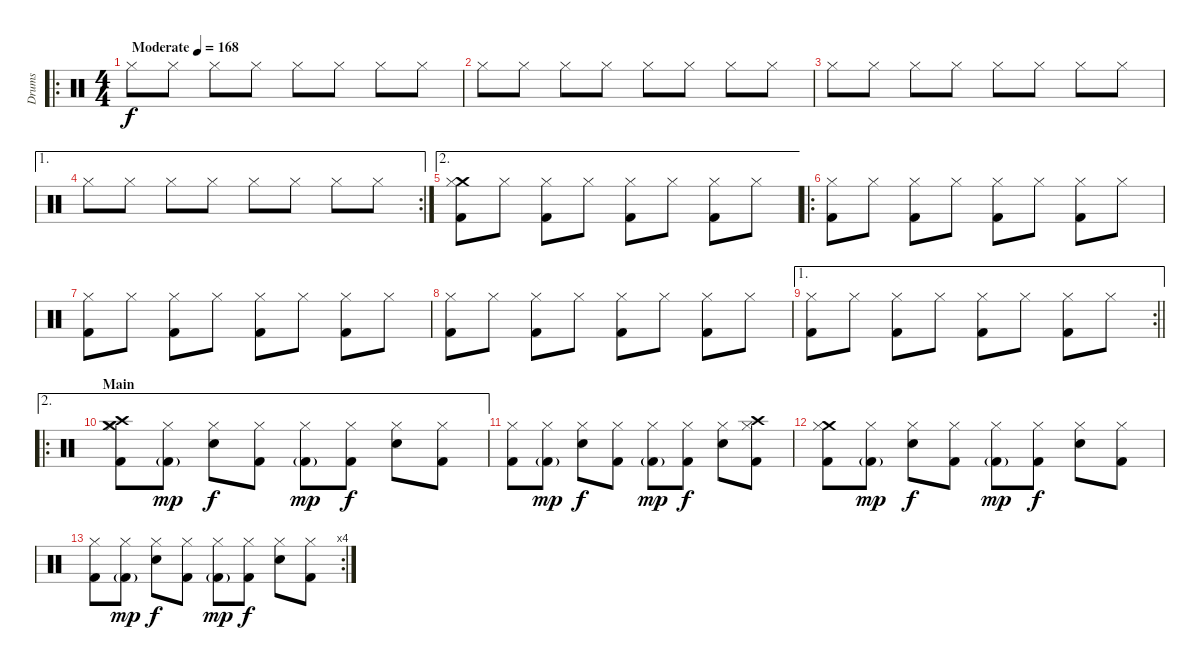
\track ("Drums" "Drums") {instrument percussion}
\staff {score}
\articulation defaults
\ro
\ts (4 4)
\tempo (168 "Moderate")
\clef neutral
\ks c "Hi-Hat (closed)".8{dy f} "Hi-Hat (closed)".8 "Hi-Hat (closed)".8 "Hi-Hat (closed)".8 "Hi-Hat (closed)".8 "Hi-Hat (closed)".8 "Hi-Hat (closed)".8 "Hi-Hat (closed)".8
|
"Hi-Hat (closed)".8 "Hi-Hat (closed)".8 "Hi-Hat (closed)".8 "Hi-Hat (closed)".8 "Hi-Hat (closed)".8 "Hi-Hat (closed)".8 "Hi-Hat (closed)".8 "Hi-Hat (closed)".8 |
"Hi-Hat (closed)".8 "Hi-Hat (closed)".8 "Hi-Hat (closed)".8 "Hi-Hat (closed)".8 "Hi-Hat (closed)".8 "Hi-Hat (closed)".8 "Hi-Hat (closed)".8 "Hi-Hat (closed)".8 |
\ae 1
\rc 2 "Hi-Hat (closed)".8 "Hi-Hat (closed)".8 "Hi-Hat (closed)".8 "Hi-Hat (closed)".8 "Hi-Hat (closed)".8 "Hi-Hat (closed)".8 "Hi-Hat (closed)".8 "Hi-Hat (closed)".8
|
\ae 2
("Crash medium (hit)" "Kick (hit) 2" "Hi-Hat (closed)").8 "Hi-Hat (closed)".8 ("Kick (hit) 2" "Hi-Hat (closed)").8 "Hi-Hat (closed)".8 ("Kick (hit) 2" "Hi-Hat (closed)").8 "Hi-Hat (closed)".8 ("Kick (hit) 2" "Hi-Hat (closed)").8 "Hi-Hat (closed)".8 |
\ro
("Kick (hit) 2" "Hi-Hat (closed)").8 "Hi-Hat (closed)".8 ("Kick (hit) 2" "Hi-Hat (closed)").8 "Hi-Hat (closed)".8 ("Kick (hit) 2" "Hi-Hat (closed)").8 "Hi-Hat (closed)".8 ("Kick (hit) 2" "Hi-Hat (closed)").8 "Hi-Hat (closed)".8 |
("Kick (hit) 2" "Hi-Hat (closed)").8 "Hi-Hat (closed)".8 ("Kick (hit) 2" "Hi-Hat (closed)").8 "Hi-Hat (closed)".8 ("Kick (hit) 2" "Hi-Hat (closed)").8 "Hi-Hat (closed)".8 ("Kick (hit) 2" "Hi-Hat (closed)").8 "Hi-Hat (closed)".8 |
("Kick (hit) 2" "Hi-Hat (closed)").8 "Hi-Hat (closed)".8 ("Kick (hit) 2" "Hi-Hat (closed)").8 "Hi-Hat (closed)".8 ("Kick (hit) 2" "Hi-Hat (closed)").8 "Hi-Hat (closed)".8 ("Kick (hit) 2" "Hi-Hat (closed)").8 "Hi-Hat (closed)".8 |
\ae 1
\rc 2
\barLineRight lightlight
("Kick (hit) 2" "Hi-Hat (closed)").8 "Hi-Hat (closed)".8 ("Kick (hit) 2" "Hi-Hat (closed)").8 "Hi-Hat (closed)".8 ("Kick (hit) 2" "Hi-Hat (closed)").8 "Hi-Hat (closed)".8 ("Kick (hit) 2" "Hi-Hat (closed)").8 "Hi-Hat (closed)".8 |
\ae 2
\ro
\section ("" "Main")
("Crash medium (hit)" "Crash high (hit)" "Kick (hit) 2" "Hi-Hat (closed)").8 ("Kick (hit) 2"{g} "Hi-Hat (closed)").8{dy mp} ("Electric Snare (hit)" "Hi-Hat (closed)").8{dy f} ("Kick (hit) 2" "Hi-Hat (closed)").8 ("Kick (hit) 2"{g} "Hi-Hat (closed)").8{dy mp} ("Kick (hit) 2" "Hi-Hat (closed)").8{dy f} ("Electric Snare (hit)" "Hi-Hat (closed)").8 ("Kick (hit) 2" "Hi-Hat (closed)").8 |
("Kick (hit) 2" "Hi-Hat (closed)").8 ("Kick (hit) 2"{g} "Hi-Hat (closed)").8{dy mp} ("Electric Snare (hit)" "Hi-Hat (closed)").8{dy f} ("Kick (hit) 2" "Hi-Hat (closed)").8 ("Kick (hit) 2"{g} "Hi-Hat (closed)").8{dy mp} ("Kick (hit) 2" "Hi-Hat (closed)").8{dy f} ("Electric Snare (hit)" "Hi-Hat (closed)").8 ("Crash high (hit)" "Kick (hit) 2" "Hi-Hat (closed)").8 |
("Crash medium (hit)" "Kick (hit) 2" "Hi-Hat (closed)").8 ("Kick (hit) 2"{g} "Hi-Hat (closed)").8{dy mp} ("Electric Snare (hit)" "Hi-Hat (closed)").8{dy f} ("Kick (hit) 2" "Hi-Hat (closed)").8 ("Kick (hit) 2"{g} "Hi-Hat (closed)").8{dy mp} ("Kick (hit) 2" "Hi-Hat (closed)").8{dy f} ("Electric Snare (hit)" "Hi-Hat (closed)").8 ("Kick (hit) 2" "Hi-Hat (closed)").8 |
\rc 4
("Kick (hit) 2" "Hi-Hat (closed)").8 ("Kick (hit) 2"{g} "Hi-Hat (closed)").8{dy mp} ("Electric Snare (hit)" "Hi-Hat (closed)").8{dy f} ("Kick (hit) 2" "Hi-Hat (closed)").8 ("Kick (hit) 2"{g} "Hi-Hat (closed)").8{dy mp} ("Kick (hit) 2" "Hi-Hat (closed)").8{dy f} ("Electric Snare (hit)" "Hi-Hat (closed)").8 ("Kick (hit) 2" "Hi-Hat (closed)").8
